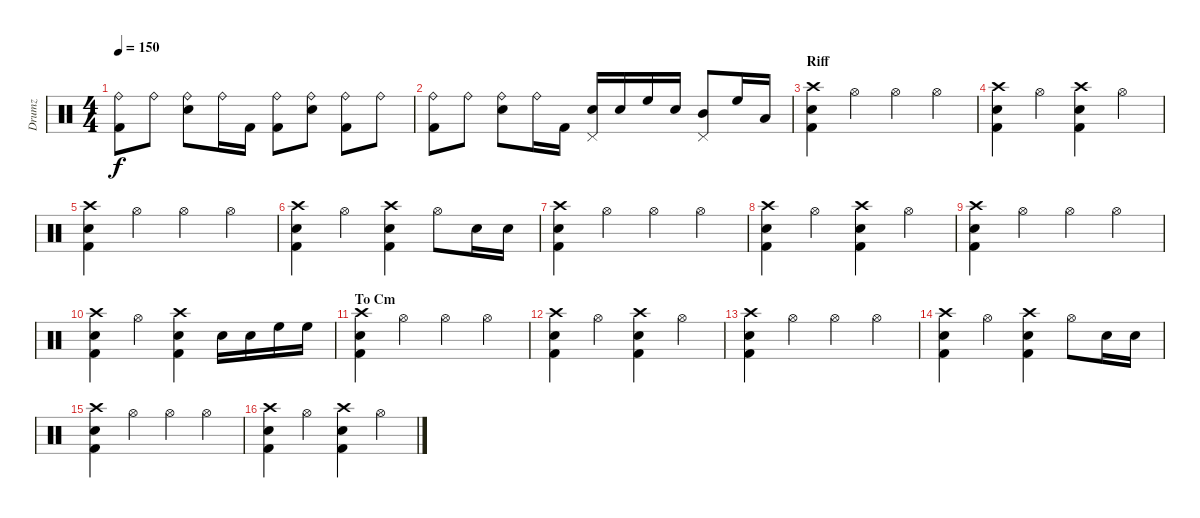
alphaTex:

\track ("Drumz" "Drumz") {instrument percussion}
\staff {score}
\articulation defaults
\ts (4 4)
\tempo 150
\clef neutral
\ks c
("Ride (bell)" "Kick (hit) 2").8{dy f} "Ride (bell)".8 ("Ride (bell)" "Snare (hit) 2").8 "Ride (bell)".16 "Kick (hit) 2".16 ("Ride (bell)" "Kick (hit) 2").8 ("Ride (bell)" "Snare (hit) 2").8 ("Ride (bell)" "Kick (hit) 2").8 "Ride (bell)".8 |
("Ride (bell)" "Kick (hit) 2").8 "Ride (bell)".8 ("Ride (bell)" "Snare (hit) 2").8 "Ride (bell)".16 "Kick (hit) 2".16 ("Pedal Hi-Hat (hit)" "Snare (hit) 2").16 "Snare (hit) 2".16 "High Floor Tom (hit)".16 "Snare (hit) 2".16 ("Pedal Hi-Hat (hit)" "Mid Tom (hit)").8 "High Floor Tom (hit)".16 "Low Tom (hit)".16 |
\section ("" "Riff")
("Crash high (hit)" "Snare (hit) 2" "Kick (hit) 2").4 "Hi-Hat (open)".4 "Hi-Hat (open)".4 "Hi-Hat (open)".4 |
("Crash high (hit)" "Snare (hit) 2" "Kick (hit) 2").4 "Hi-Hat (open)".4 ("Crash high (hit)" "Snare (hit) 2" "Kick (hit) 2").4 "Hi-Hat (open)".4 |
("Crash high (hit)" "Snare (hit) 2" "Kick (hit) 2").4 "Hi-Hat (open)".4 "Hi-Hat (open)".4 "Hi-Hat (open)".4 |
("Crash high (hit)" "Snare (hit) 2" "Kick (hit) 2").4 "Hi-Hat (open)".4 ("Crash high (hit)" "Snare (hit) 2" "Kick (hit) 2").4 "Hi-Hat (open)".8 "Snare (hit) 2".16 "Snare (hit) 2".16 |
("Crash high (hit)" "Snare (hit) 2" "Kick (hit) 2").4 "Hi-Hat (open)".4 "Hi-Hat (open)".4 "Hi-Hat (open)".4 |
("Crash high (hit)" "Snare (hit) 2" "Kick (hit) 2").4 "Hi-Hat (open)".4 ("Crash high (hit)" "Snare (hit) 2" "Kick (hit) 2").4 "Hi-Hat (open)".4 |
("Crash high (hit)" "Snare (hit) 2" "Kick (hit) 2").4 "Hi-Hat (open)".4 "Hi-Hat (open)".4 "Hi-Hat (open)".4 |
("Crash high (hit)" "Snare (hit) 2" "Kick (hit) 2").4 "Hi-Hat (open)".4 ("Crash high (hit)" "Snare (hit) 2" "Kick (hit) 2").4 "Snare (hit) 2".16 "Snare (hit) 2".16 "High Floor Tom (hit)".16 "High Floor Tom (hit)".16 |
\section ("" "To Cm")
("Crash high (hit)" "Snare (hit) 2" "Kick (hit) 2").4 "Hi-Hat (open)".4 "Hi-Hat (open)".4 "Hi-Hat (open)".4 |
("Crash high (hit)" "Snare (hit) 2" "Kick (hit) 2").4 "Hi-Hat (open)".4 ("Crash high (hit)" "Snare (hit) 2" "Kick (hit) 2").4 "Hi-Hat (open)".4 |
("Crash high (hit)" "Snare (hit) 2" "Kick (hit) 2").4 "Hi-Hat (open)".4 "Hi-Hat (open)".4 "Hi-Hat (open)".4 |
("Crash high (hit)" "Snare (hit) 2" "Kick (hit) 2").4 "Hi-Hat (open)".4 ("Crash high (hit)" "Snare (hit) 2" "Kick (hit) 2").4 "Hi-Hat (open)".8 "Snare (hit) 2".16 "Snare (hit) 2".16 |
("Crash high (hit)" "Snare (hit) 2" "Kick (hit) 2").4 "Hi-Hat (open)".4 "Hi-Hat (open)".4 "Hi-Hat (open)".4 |
("Crash high (hit)" "Snare (hit) 2" "Kick (hit) 2").4 "Hi-Hat (open)".4 ("Crash high (hit)" "Snare (hit) 2" "Kick (hit) 2").4 "Hi-Hat (open)".4
